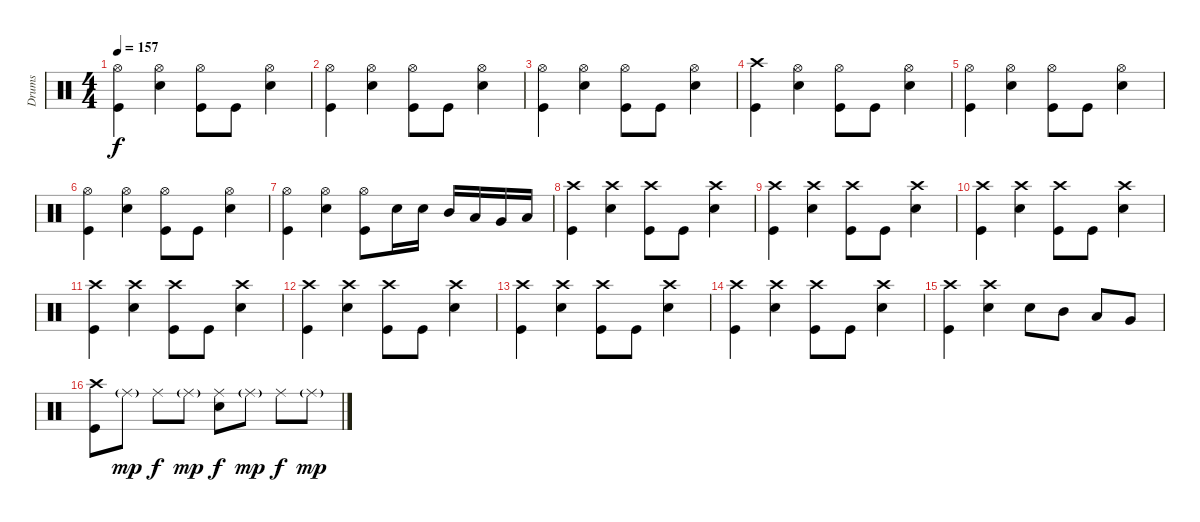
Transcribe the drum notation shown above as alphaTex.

\track ("Drums" "Drums") {instrument percussion}
\staff {score}
\articulation defaults
\ts (4 4)
\tempo 157
\clef neutral
\ks c
("Hi-Hat (open)" "Kick (hit)").4{dy f} ("Hi-Hat (open)" "Snare (hit) 2").4 ("Hi-Hat (open)" "Kick (hit)").8 "Kick (hit)".8 ("Hi-Hat (open)" "Snare (hit) 2").4 |
("Hi-Hat (open)" "Kick (hit)").4 ("Hi-Hat (open)" "Snare (hit) 2").4 ("Hi-Hat (open)" "Kick (hit)").8 "Kick (hit)".8 ("Hi-Hat (open)" "Snare (hit) 2").4 |
("Hi-Hat (open)" "Kick (hit)").4 ("Hi-Hat (open)" "Snare (hit) 2").4 ("Hi-Hat (open)" "Kick (hit)").8 "Kick (hit)".8 ("Hi-Hat (open)" "Snare (hit) 2").4 |
("Crash high (hit)" "Kick (hit)").4 ("Hi-Hat (open)" "Snare (hit) 2").4 ("Hi-Hat (open)" "Kick (hit)").8 "Kick (hit)".8 ("Hi-Hat (open)" "Snare (hit) 2").4 |
("Hi-Hat (open)" "Kick (hit)").4 ("Hi-Hat (open)" "Snare (hit) 2").4 ("Hi-Hat (open)" "Kick (hit)").8 "Kick (hit)".8 ("Hi-Hat (open)" "Snare (hit) 2").4 |
("Hi-Hat (open)" "Kick (hit)").4 ("Hi-Hat (open)" "Snare (hit) 2").4 ("Hi-Hat (open)" "Kick (hit)").8 "Kick (hit)".8 ("Hi-Hat (open)" "Snare (hit) 2").4 |
("Hi-Hat (open)" "Kick (hit)").4 ("Hi-Hat (open)" "Snare (hit) 2").4 ("Hi-Hat (open)" "Kick (hit)").8 "Snare (hit) 2".16 "Snare (hit) 2".16 "Mid Tom (hit)".16 "Low Tom (hit)".16 "Very Low Tom (hit)".16 "Low Floor Tom (hit)".16 |
("Crash high (hit)" "Kick (hit)").4 ("Crash high (hit)" "Snare (hit) 2").4 ("Crash high (hit)" "Kick (hit)").8 "Kick (hit)".8 ("Crash high (hit)" "Snare (hit) 2").4 |
("Crash high (hit)" "Kick (hit)").4 ("Crash high (hit)" "Snare (hit) 2").4 ("Crash high (hit)" "Kick (hit)").8 "Kick (hit)".8 ("Crash high (hit)" "Snare (hit) 2").4 |
("Crash high (hit)" "Kick (hit)").4 ("Crash high (hit)" "Snare (hit) 2").4 ("Crash high (hit)" "Kick (hit)").8 "Kick (hit)".8 ("Crash high (hit)" "Snare (hit) 2").4 |
("Crash high (hit)" "Kick (hit)").4 ("Crash high (hit)" "Snare (hit) 2").4 ("Crash high (hit)" "Kick (hit)").8 "Kick (hit)".8 ("Crash high (hit)" "Snare (hit) 2").4 |
("Crash high (hit)" "Kick (hit)").4 ("Crash high (hit)" "Snare (hit) 2").4 ("Crash high (hit)" "Kick (hit)").8 "Kick (hit)".8 ("Crash high (hit)" "Snare (hit) 2").4 |
("Crash high (hit)" "Kick (hit)").4 ("Crash high (hit)" "Snare (hit) 2").4 ("Crash high (hit)" "Kick (hit)").8 "Kick (hit)".8 ("Crash high (hit)" "Snare (hit) 2").4 |
("Crash high (hit)" "Kick (hit)").4 ("Crash high (hit)" "Snare (hit) 2").4 ("Crash high (hit)" "Kick (hit)").8 "Kick (hit)".8 ("Crash high (hit)" "Snare (hit) 2").4 |
("Crash high (hit)" "Kick (hit)").4 ("Crash high (hit)" "Snare (hit) 2").4 "Snare (hit) 2".8 "Mid Tom (hit)".8 "Low Tom (hit)".8 "Very Low Tom (hit)".8 |
("Crash high (hit)" "Kick (hit)").8 "Ride (middle)"{g}.8{dy mp} "Ride (middle)".8{dy f} "Ride (middle)"{g}.8{dy mp} ("Ride (middle)" "Snare (hit) 2").8{dy f} "Ride (middle)"{g}.8{dy mp} "Ride (middle)".8{dy f} "Ride (middle)"{g}.8{dy mp}
